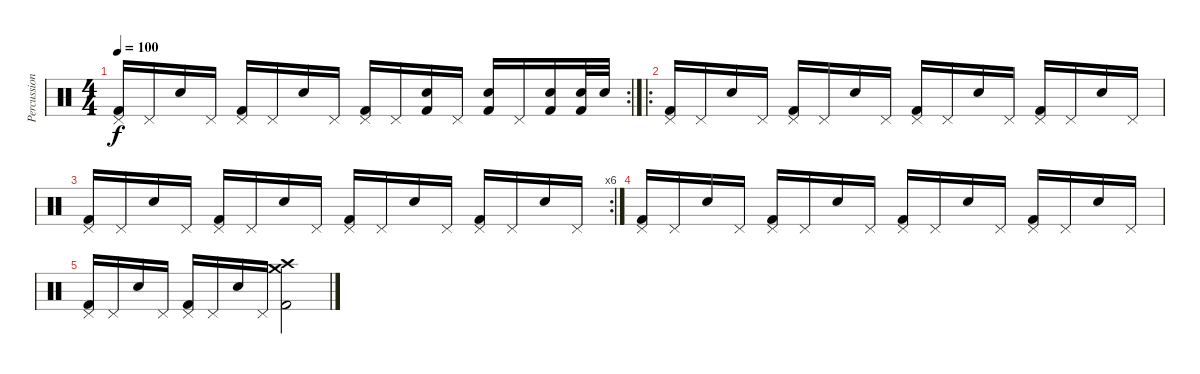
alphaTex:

\track ("Percussion" "Percussion") {instrument percussion}
\staff {score}
\articulation defaults
\rc 2
\ts (4 4)
\tempo 100
\clef neutral
\ks c
("Pedal Hi-Hat (hit)" "Kick (hit) 2").16{dy f} "Pedal Hi-Hat (hit)".16 "Snare (hit) 2".16 "Pedal Hi-Hat (hit)".16 ("Pedal Hi-Hat (hit)" "Kick (hit) 2").16 "Pedal Hi-Hat (hit)".16 "Snare (hit) 2".16 "Pedal Hi-Hat (hit)".16 ("Pedal Hi-Hat (hit)" "Kick (hit) 2").16 "Pedal Hi-Hat (hit)".16 ("Snare (hit) 2" "Kick (hit) 2").16 "Pedal Hi-Hat (hit)".16 ("Snare (hit) 2" "Kick (hit) 2").16 "Pedal Hi-Hat (hit)".16 ("Snare (hit) 2" "Kick (hit) 2").16 ("Snare (hit) 2" "Kick (hit) 2").32 "Snare (hit) 2".32 |
\ro
("Pedal Hi-Hat (hit)" "Kick (hit) 2").16 "Pedal Hi-Hat (hit)".16 "Snare (hit) 2".16 "Pedal Hi-Hat (hit)".16 ("Pedal Hi-Hat (hit)" "Kick (hit) 2").16 "Pedal Hi-Hat (hit)".16 "Snare (hit) 2".16 "Pedal Hi-Hat (hit)".16 ("Pedal Hi-Hat (hit)" "Kick (hit) 2").16 "Pedal Hi-Hat (hit)".16 "Snare (hit) 2".16 "Pedal Hi-Hat (hit)".16 ("Pedal Hi-Hat (hit)" "Kick (hit) 2").16 "Pedal Hi-Hat (hit)".16 "Snare (hit) 2".16 "Pedal Hi-Hat (hit)".16 |
\rc 6
("Pedal Hi-Hat (hit)" "Kick (hit) 2").16 "Pedal Hi-Hat (hit)".16 "Snare (hit) 2".16 "Pedal Hi-Hat (hit)".16 ("Pedal Hi-Hat (hit)" "Kick (hit) 2").16 "Pedal Hi-Hat (hit)".16 "Snare (hit) 2".16 "Pedal Hi-Hat (hit)".16 ("Pedal Hi-Hat (hit)" "Kick (hit) 2").16 "Pedal Hi-Hat (hit)".16 "Snare (hit) 2".16 "Pedal Hi-Hat (hit)".16 ("Pedal Hi-Hat (hit)" "Kick (hit) 2").16 "Pedal Hi-Hat (hit)".16 "Snare (hit) 2".16 "Pedal Hi-Hat (hit)".16 |
("Pedal Hi-Hat (hit)" "Kick (hit) 2").16 "Pedal Hi-Hat (hit)".16 "Snare (hit) 2".16 "Pedal Hi-Hat (hit)".16 ("Pedal Hi-Hat (hit)" "Kick (hit) 2").16 "Pedal Hi-Hat (hit)".16 "Snare (hit) 2".16 "Pedal Hi-Hat (hit)".16 ("Pedal Hi-Hat (hit)" "Kick (hit) 2").16 "Pedal Hi-Hat (hit)".16 "Snare (hit) 2".16 "Pedal Hi-Hat (hit)".16 ("Pedal Hi-Hat (hit)" "Kick (hit) 2").16 "Pedal Hi-Hat (hit)".16 "Snare (hit) 2".16 "Pedal Hi-Hat (hit)".16 |
("Pedal Hi-Hat (hit)" "Kick (hit) 2").16 "Pedal Hi-Hat (hit)".16 "Snare (hit) 2".16 "Pedal Hi-Hat (hit)".16 ("Pedal Hi-Hat (hit)" "Kick (hit) 2").16 "Pedal Hi-Hat (hit)".16 "Snare (hit) 2".16 "Pedal Hi-Hat (hit)".16 ("Crash high (hit)" "Crash medium (hit)" "Kick (hit) 2").2
